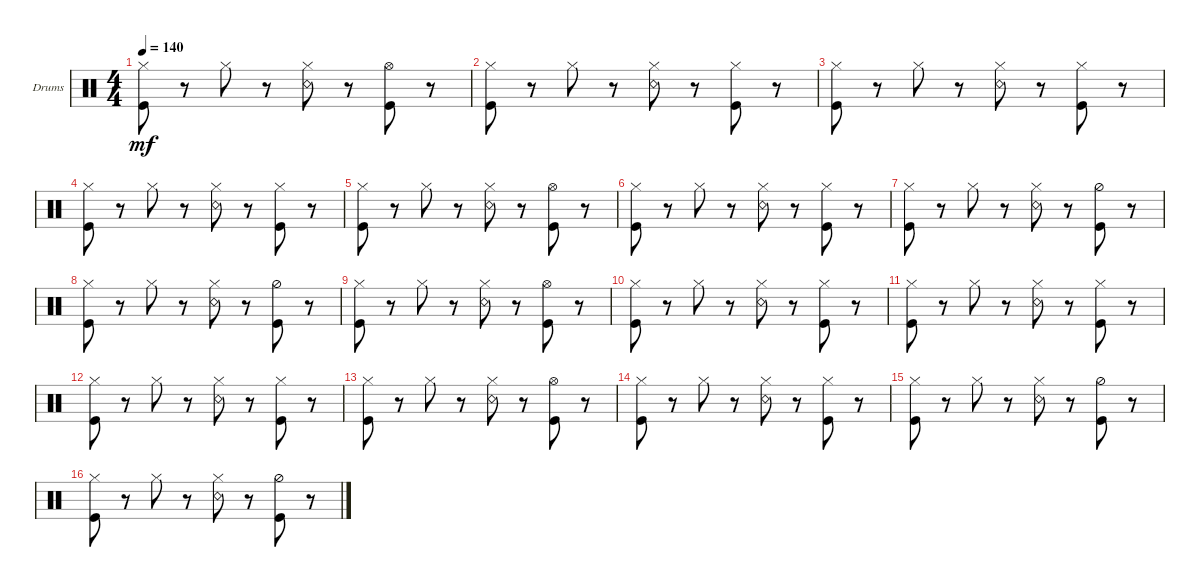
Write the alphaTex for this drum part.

\defaultSystemsLayout 4
\bracketExtendMode groupsimilarinstruments
\firstSystemTrackNameOrientation horizontal
\otherSystemsTrackNameOrientation horizontal
\track ("Drumkit" "Drums") {instrument percussion}
\staff {score}
\articulation defaults
\ts (4 4)
\tempo 140
\clef neutral
\ks c
("Hi-Hat (closed)" "Kick (hit)").8{dy mf} r.8 "Hi-Hat (closed)".8 r.8 ("Hi-Hat (closed)" "Snare (rim shot)").8 r.8 ("Hi-Hat (open)" "Kick (hit)").8 r.8 |
("Kick (hit)" "Hi-Hat (closed)").8 r.8 "Hi-Hat (closed)".8 r.8 ("Hi-Hat (closed)" "Snare (rim shot)").8 r.8 ("Hi-Hat (closed)" "Kick (hit)").8 r.8 |
("Hi-Hat (closed)" "Kick (hit)").8 r.8 "Hi-Hat (closed)".8 r.8 ("Hi-Hat (closed)" "Snare (rim shot)").8 r.8 ("Hi-Hat (closed)" "Kick (hit)").8 r.8 |
("Kick (hit)" "Hi-Hat (closed)").8 r.8 "Hi-Hat (closed)".8 r.8 ("Hi-Hat (closed)" "Snare (rim shot)").8 r.8 ("Hi-Hat (closed)" "Kick (hit)").8 r.8 |
("Hi-Hat (closed)" "Kick (hit)").8 r.8 "Hi-Hat (closed)".8 r.8 ("Hi-Hat (closed)" "Snare (rim shot)").8 r.8 ("Hi-Hat (open)" "Kick (hit)").8 r.8 |
("Kick (hit)" "Hi-Hat (closed)").8 r.8 "Hi-Hat (closed)".8 r.8 ("Hi-Hat (closed)" "Snare (rim shot)").8 r.8 ("Hi-Hat (closed)" "Kick (hit)").8 r.8 |
("Hi-Hat (closed)" "Kick (hit)").8 r.8 "Hi-Hat (closed)".8 r.8 ("Hi-Hat (closed)" "Snare (rim shot)").8 r.8 ("Hi-Hat (half)" "Kick (hit)").8 r.8 |
("Hi-Hat (closed)" "Kick (hit)").8 r.8 "Hi-Hat (closed)".8 r.8 ("Hi-Hat (closed)" "Snare (rim shot)").8 r.8 ("Hi-Hat (half)" "Kick (hit)").8 r.8 |
("Hi-Hat (closed)" "Kick (hit)").8 r.8 "Hi-Hat (closed)".8 r.8 ("Hi-Hat (closed)" "Snare (rim shot)").8 r.8 ("Hi-Hat (open)" "Kick (hit)").8 r.8 |
("Kick (hit)" "Hi-Hat (closed)").8 r.8 "Hi-Hat (closed)".8 r.8 ("Hi-Hat (closed)" "Snare (rim shot)").8 r.8 ("Hi-Hat (closed)" "Kick (hit)").8 r.8 |
("Hi-Hat (closed)" "Kick (hit)").8 r.8 "Hi-Hat (closed)".8 r.8 ("Hi-Hat (closed)" "Snare (rim shot)").8 r.8 ("Hi-Hat (closed)" "Kick (hit)").8 r.8 |
("Kick (hit)" "Hi-Hat (closed)").8 r.8 "Hi-Hat (closed)".8 r.8 ("Hi-Hat (closed)" "Snare (rim shot)").8 r.8 ("Hi-Hat (closed)" "Kick (hit)").8 r.8 |
("Hi-Hat (closed)" "Kick (hit)").8 r.8 "Hi-Hat (closed)".8 r.8 ("Hi-Hat (closed)" "Snare (rim shot)").8 r.8 ("Hi-Hat (open)" "Kick (hit)").8 r.8 |
("Kick (hit)" "Hi-Hat (closed)").8 r.8 "Hi-Hat (closed)".8 r.8 ("Hi-Hat (closed)" "Snare (rim shot)").8 r.8 ("Hi-Hat (closed)" "Kick (hit)").8 r.8 |
("Hi-Hat (closed)" "Kick (hit)").8 r.8 "Hi-Hat (closed)".8 r.8 ("Hi-Hat (closed)" "Snare (rim shot)").8 r.8 ("Hi-Hat (half)" "Kick (hit)").8 r.8 |
("Hi-Hat (closed)" "Kick (hit)").8 r.8 "Hi-Hat (closed)".8 r.8 ("Hi-Hat (closed)" "Snare (rim shot)").8 r.8 ("Hi-Hat (half)" "Kick (hit)").8 r.8
